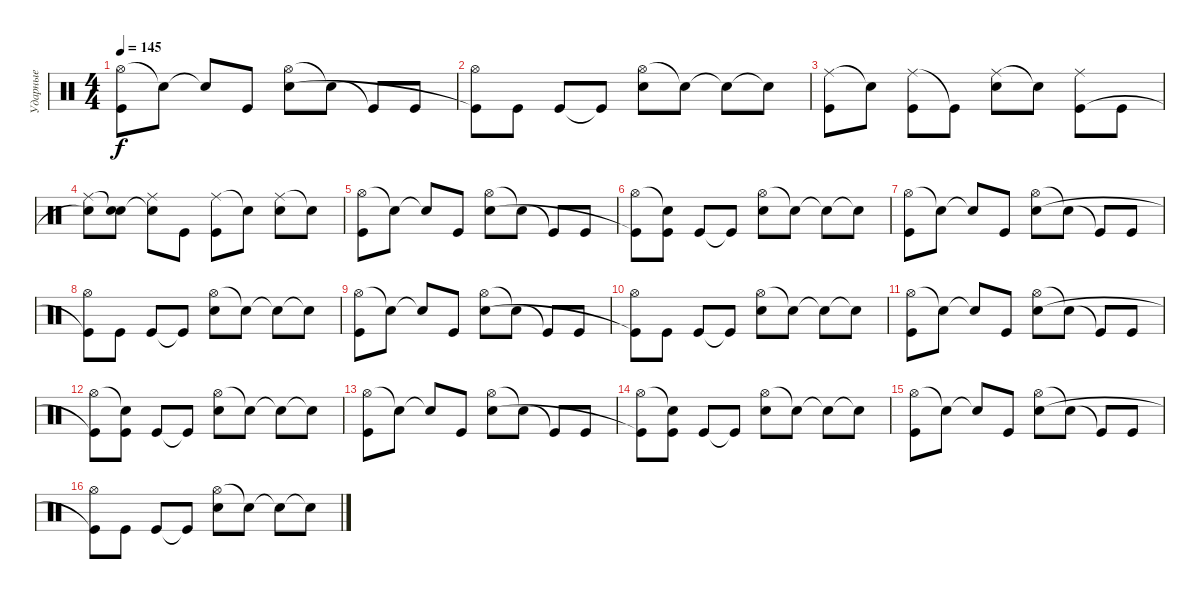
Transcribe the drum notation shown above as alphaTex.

\track ("Ударные" "Ударные") {instrument percussion}
\staff {score}
\articulation defaults
\ts (4 4)
\tempo 145
\clef neutral
\ks c
("Hi-Hat (open)" "Kick (hit)").8{dy f} "Snare (hit)"{t}.8 "Snare (hit)"{t}.8 "Kick (hit)".8 ("Hi-Hat (open)" "Snare (hit) 2").8 "Snare (hit)"{t}.8 "Kick (hit)"{t}.8 "Kick (hit)".8 |
("Hi-Hat (open)" "Kick (hit)"{t}).8 "Kick (hit)".8 "Kick (hit)".8 "Kick (hit)"{t}.8 ("Hi-Hat (open)" "Snare (hit) 2").8 "Snare (hit)"{t}.8 "Snare (hit)"{t}.8 "Snare (hit)"{t}.8 |
("Ride (middle)" "Kick (hit)").8 "Snare (hit)"{t}.8 ("Ride (middle)" "Kick (hit)").8 "Kick (hit)"{t}.8 ("Ride (middle)" "Snare (hit) 2").8 "Snare (hit)"{t}.8 ("Ride (middle)" "Kick (hit)").8 "Kick (hit)".8 |
("Ride (middle)" "Snare (hit) 2"{t}).8 ("Snare (hit)"{t} "Snare (hit) 2").8 ("Ride (middle)" "Snare (hit) 2"{t}).8 "Kick (hit)".8 ("Ride (middle)" "Kick (hit)").8 "Snare (hit) 2"{t}.8 ("Ride (middle)" "Snare (hit) 2").8 "Snare (hit)"{t}.8 |
("Hi-Hat (open)" "Kick (hit)").8 "Snare (hit)"{t}.8 "Snare (hit)"{t}.8 "Kick (hit)".8 ("Hi-Hat (open)" "Snare (hit) 2").8 "Snare (hit)"{t}.8 "Kick (hit)"{t}.8 "Kick (hit)".8 |
("Hi-Hat (open)" "Kick (hit)"{t}).8 ("Snare (hit)"{t} "Kick (hit)").8 "Kick (hit)".8 "Kick (hit)"{t}.8 ("Hi-Hat (open)" "Snare (hit) 2").8 "Snare (hit)"{t}.8 "Snare (hit)"{t}.8 "Snare (hit)"{t}.8 |
("Hi-Hat (open)" "Kick (hit)").8 "Snare (hit)"{t}.8 "Snare (hit)"{t}.8 "Kick (hit)".8 ("Hi-Hat (open)" "Snare (hit) 2").8 "Snare (hit)"{t}.8 "Kick (hit)"{t}.8 "Kick (hit)".8 |
("Hi-Hat (open)" "Kick (hit)"{t}).8 "Kick (hit)".8 "Kick (hit)".8 "Kick (hit)"{t}.8 ("Hi-Hat (open)" "Snare (hit) 2").8 "Snare (hit)"{t}.8 "Snare (hit)"{t}.8 "Snare (hit)"{t}.8 |
("Hi-Hat (open)" "Kick (hit)").8 "Snare (hit)"{t}.8 "Snare (hit)"{t}.8 "Kick (hit)".8 ("Hi-Hat (open)" "Snare (hit) 2").8 "Snare (hit)"{t}.8 "Kick (hit)"{t}.8 "Kick (hit)".8 |
("Hi-Hat (open)" "Kick (hit)"{t}).8 "Kick (hit)".8 "Kick (hit)".8 "Kick (hit)"{t}.8 ("Hi-Hat (open)" "Snare (hit) 2").8 "Snare (hit)"{t}.8 "Snare (hit)"{t}.8 "Snare (hit)"{t}.8 |
("Hi-Hat (open)" "Kick (hit)").8 "Snare (hit)"{t}.8 "Snare (hit)"{t}.8 "Kick (hit)".8 ("Hi-Hat (open)" "Snare (hit) 2").8 "Snare (hit)"{t}.8 "Kick (hit)"{t}.8 "Kick (hit)".8 |
("Hi-Hat (open)" "Kick (hit)"{t}).8 ("Snare (hit)"{t} "Kick (hit)").8 "Kick (hit)".8 "Kick (hit)"{t}.8 ("Hi-Hat (open)" "Snare (hit) 2").8 "Snare (hit)"{t}.8 "Snare (hit)"{t}.8 "Snare (hit)"{t}.8 |
("Hi-Hat (open)" "Kick (hit)").8 "Snare (hit)"{t}.8 "Snare (hit)"{t}.8 "Kick (hit)".8 ("Hi-Hat (open)" "Snare (hit) 2").8 "Snare (hit)"{t}.8 "Kick (hit)"{t}.8 "Kick (hit)".8 |
("Hi-Hat (open)" "Kick (hit)"{t}).8 ("Snare (hit)"{t} "Kick (hit)").8 "Kick (hit)".8 "Kick (hit)"{t}.8 ("Hi-Hat (open)" "Snare (hit) 2").8 "Snare (hit)"{t}.8 "Snare (hit)"{t}.8 "Snare (hit)"{t}.8 |
("Hi-Hat (open)" "Kick (hit)").8 "Snare (hit)"{t}.8 "Snare (hit)"{t}.8 "Kick (hit)".8 ("Hi-Hat (open)" "Snare (hit) 2").8 "Snare (hit)"{t}.8 "Kick (hit)"{t}.8 "Kick (hit)".8 |
("Hi-Hat (open)" "Kick (hit)"{t}).8 "Kick (hit)".8 "Kick (hit)".8 "Kick (hit)"{t}.8 ("Hi-Hat (open)" "Snare (hit) 2").8 "Snare (hit)"{t}.8 "Snare (hit)"{t}.8 "Snare (hit)"{t}.8
